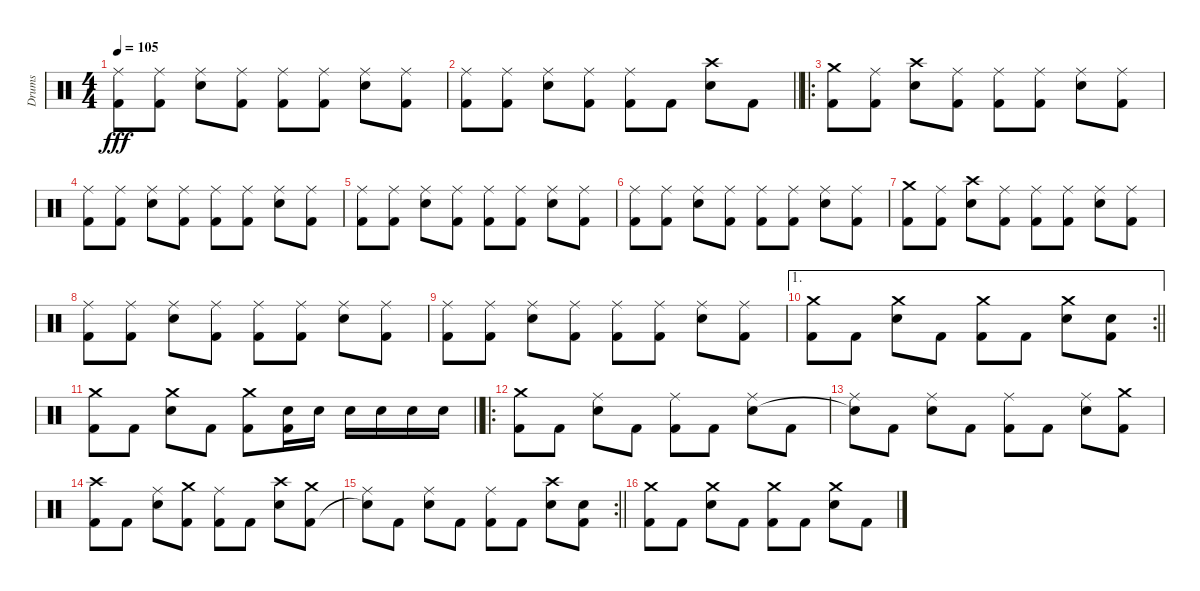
\track ("Drums" "Drums") {instrument percussion}
\staff {score}
\articulation defaults
\ts (4 4)
\tempo 105
\clef neutral
\ks c
("Ride (middle)" "Kick (hit) 2").8{dy fff} ("Ride (middle)" "Kick (hit) 2").8 ("Ride (middle)" "Electric Snare (hit)").8 ("Ride (middle)" "Kick (hit) 2").8 ("Ride (middle)" "Kick (hit) 2").8 ("Ride (middle)" "Kick (hit) 2").8 ("Ride (middle)" "Electric Snare (hit)").8 ("Ride (middle)" "Kick (hit) 2").8 |
\barLineRight lightlight
("Ride (middle)" "Kick (hit) 2").8 ("Ride (middle)" "Kick (hit) 2").8 ("Ride (middle)" "Electric Snare (hit)").8 ("Ride (middle)" "Kick (hit) 2").8 ("Ride (middle)" "Kick (hit) 2").8 "Kick (hit) 2".8 ("Crash high (hit)" "Electric Snare (hit)").8 "Kick (hit) 2".8 |
\ro
("Crash medium (hit)" "Kick (hit) 2").8 ("Ride (middle)" "Kick (hit) 2").8 ("Crash high (hit)" "Electric Snare (hit)").8 ("Ride (middle)" "Kick (hit) 2").8 ("Ride (middle)" "Kick (hit) 2").8 ("Ride (middle)" "Kick (hit) 2").8 ("Ride (middle)" "Electric Snare (hit)").8 ("Ride (middle)" "Kick (hit) 2").8 |
("Ride (middle)" "Kick (hit) 2").8 ("Ride (middle)" "Kick (hit) 2").8 ("Ride (middle)" "Electric Snare (hit)").8 ("Ride (middle)" "Kick (hit) 2").8 ("Ride (middle)" "Kick (hit) 2").8 ("Ride (middle)" "Kick (hit) 2").8 ("Ride (middle)" "Electric Snare (hit)").8 ("Ride (middle)" "Kick (hit) 2").8 |
("Ride (middle)" "Kick (hit) 2").8 ("Ride (middle)" "Kick (hit) 2").8 ("Ride (middle)" "Electric Snare (hit)").8 ("Ride (middle)" "Kick (hit) 2").8 ("Ride (middle)" "Kick (hit) 2").8 ("Ride (middle)" "Kick (hit) 2").8 ("Ride (middle)" "Electric Snare (hit)").8 ("Ride (middle)" "Kick (hit) 2").8 |
("Ride (middle)" "Kick (hit) 2").8 ("Ride (middle)" "Kick (hit) 2").8 ("Ride (middle)" "Electric Snare (hit)").8 ("Ride (middle)" "Kick (hit) 2").8 ("Ride (middle)" "Kick (hit) 2").8 ("Ride (middle)" "Kick (hit) 2").8 ("Ride (middle)" "Electric Snare (hit)").8 ("Ride (middle)" "Kick (hit) 2").8 |
("Crash medium (hit)" "Kick (hit) 2").8 ("Ride (middle)" "Kick (hit) 2").8 ("Crash high (hit)" "Electric Snare (hit)").8 ("Ride (middle)" "Kick (hit) 2").8 ("Ride (middle)" "Kick (hit) 2").8 ("Ride (middle)" "Kick (hit) 2").8 ("Ride (middle)" "Electric Snare (hit)").8 ("Ride (middle)" "Kick (hit) 2").8 |
("Ride (middle)" "Kick (hit) 2").8 ("Ride (middle)" "Kick (hit) 2").8 ("Ride (middle)" "Electric Snare (hit)").8 ("Ride (middle)" "Kick (hit) 2").8 ("Ride (middle)" "Kick (hit) 2").8 ("Ride (middle)" "Kick (hit) 2").8 ("Ride (middle)" "Electric Snare (hit)").8 ("Ride (middle)" "Kick (hit) 2").8 |
("Ride (middle)" "Kick (hit) 2").8 ("Ride (middle)" "Kick (hit) 2").8 ("Ride (middle)" "Electric Snare (hit)").8 ("Ride (middle)" "Kick (hit) 2").8 ("Ride (middle)" "Kick (hit) 2").8 ("Ride (middle)" "Kick (hit) 2").8 ("Ride (middle)" "Electric Snare (hit)").8 ("Ride (middle)" "Kick (hit) 2").8 |
\ae 1
\rc 2
\barLineRight lightlight
("Crash medium (hit)" "Kick (hit) 2").8 "Kick (hit) 2".8 ("Crash medium (hit)" "Electric Snare (hit)").8 "Kick (hit) 2".8 ("Crash medium (hit)" "Kick (hit) 2").8 "Kick (hit) 2".8 ("Crash medium (hit)" "Electric Snare (hit)").8 ("Electric Snare (hit)" "Kick (hit) 2").8 |
\barLineRight lightlight
("Crash medium (hit)" "Kick (hit) 2").8 "Kick (hit) 2".8 ("Crash medium (hit)" "Electric Snare (hit)").8 "Kick (hit) 2".8 ("Crash medium (hit)" "Kick (hit) 2").8 ("Electric Snare (hit)" "Kick (hit) 2").16 "Electric Snare (hit)".16 "Electric Snare (hit)".16 "Electric Snare (hit)".16 "Electric Snare (hit)".16 "Electric Snare (hit)".16 |
\ro
("Crash medium (hit)" "Kick (hit) 2").8 "Kick (hit) 2".8 ("Ride (middle)" "Electric Snare (hit)").8 "Kick (hit) 2".8 ("Ride (middle)" "Kick (hit) 2").8 "Kick (hit) 2".8 ("Ride (middle)" "Electric Snare (hit)").8 "Kick (hit) 2".8 |
("Ride (middle)" "Snare (hit)"{t}).8 "Kick (hit) 2".8 ("Ride (middle)" "Electric Snare (hit)").8 "Kick (hit) 2".8 ("Ride (middle)" "Kick (hit) 2").8 "Kick (hit) 2".8 ("Ride (middle)" "Electric Snare (hit)").8 ("Crash medium (hit)" "Kick (hit) 2").8 |
("Crash high (hit)" "Kick (hit) 2").8 "Kick (hit) 2".8 ("Ride (middle)" "Electric Snare (hit)").8 ("Crash medium (hit)" "Kick (hit) 2").8 ("Ride (middle)" "Kick (hit) 2").8 "Kick (hit) 2".8 ("Crash high (hit)" "Electric Snare (hit)").8 ("Crash medium (hit)" "Kick (hit) 2").8 |
\rc 2
\barLineRight lightlight
("Ride (middle)" "Snare (hit)"{t}).8 "Kick (hit) 2".8 ("Ride (middle)" "Electric Snare (hit)").8 "Kick (hit) 2".8 ("Ride (middle)" "Kick (hit) 2").8 "Kick (hit) 2".8 ("Crash high (hit)" "Electric Snare (hit)").8 ("Electric Snare (hit)" "Kick (hit) 2").8 |
("Crash medium (hit)" "Kick (hit) 2").8 "Kick (hit) 2".8 ("Crash medium (hit)" "Electric Snare (hit)").8 "Kick (hit) 2".8 ("Crash medium (hit)" "Kick (hit) 2").8 "Kick (hit) 2".8 ("Crash medium (hit)" "Electric Snare (hit)").8 "Kick (hit) 2".8
